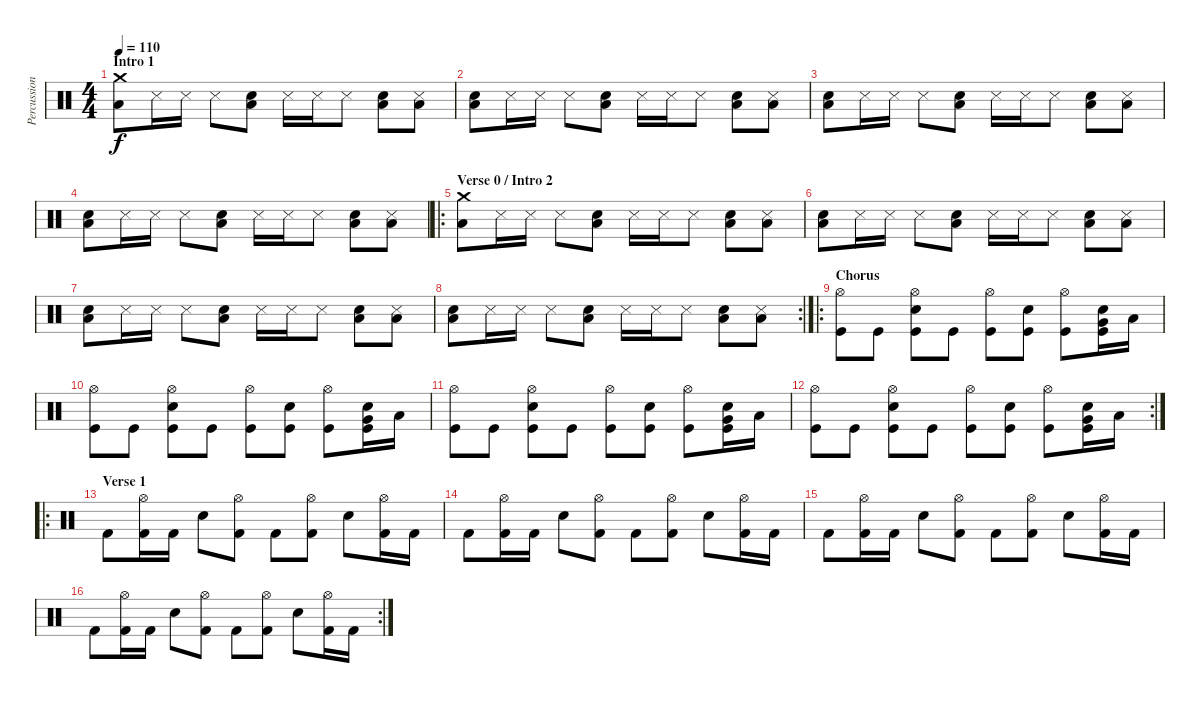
\track ("Percussion" "Percussion") {instrument percussion}
\staff {score}
\articulation defaults
\ts (4 4)
\section ("" "Intro 1")
\tempo 110
\clef neutral
\ks c
("Low Floor Tom (hit)" "Crash medium (hit)").8{dy f} "Snare (side stick) 3".16 "Snare (side stick) 3".16 "Snare (side stick) 3".8 ("Low Floor Tom (hit)" "Electric Snare (hit)").8 "Snare (side stick) 3".16 "Snare (side stick) 3".16 "Snare (side stick) 3".8 ("Low Floor Tom (hit)" "Electric Snare (hit)").8 ("Snare (side stick) 3" "Low Floor Tom (hit)").8 |
("Low Floor Tom (hit)" "Electric Snare (hit)").8 "Snare (side stick) 3".16 "Snare (side stick) 3".16 "Snare (side stick) 3".8 ("Low Floor Tom (hit)" "Electric Snare (hit)").8 "Snare (side stick) 3".16 "Snare (side stick) 3".16 "Snare (side stick) 3".8 ("Low Floor Tom (hit)" "Electric Snare (hit)").8 ("Snare (side stick) 3" "Low Floor Tom (hit)").8 |
("Low Floor Tom (hit)" "Electric Snare (hit)").8 "Snare (side stick) 3".16 "Snare (side stick) 3".16 "Snare (side stick) 3".8 ("Low Floor Tom (hit)" "Electric Snare (hit)").8 "Snare (side stick) 3".16 "Snare (side stick) 3".16 "Snare (side stick) 3".8 ("Low Floor Tom (hit)" "Electric Snare (hit)").8 ("Snare (side stick) 3" "Low Floor Tom (hit)").8 |
("Low Floor Tom (hit)" "Electric Snare (hit)").8 "Snare (side stick) 3".16 "Snare (side stick) 3".16 "Snare (side stick) 3".8 ("Low Floor Tom (hit)" "Electric Snare (hit)").8 "Snare (side stick) 3".16 "Snare (side stick) 3".16 "Snare (side stick) 3".8 ("Low Floor Tom (hit)" "Electric Snare (hit)").8 ("Snare (side stick) 3" "Low Floor Tom (hit)").8 |
\ro
\section ("" "Verse 0 / Intro 2")
("Low Floor Tom (hit)" "Crash medium (hit)").8 "Snare (side stick) 3".16 "Snare (side stick) 3".16 "Snare (side stick) 3".8 ("Low Floor Tom (hit)" "Electric Snare (hit)").8 "Snare (side stick) 3".16 "Snare (side stick) 3".16 "Snare (side stick) 3".8 ("Low Floor Tom (hit)" "Electric Snare (hit)").8 ("Snare (side stick) 3" "Low Floor Tom (hit)").8 |
("Low Floor Tom (hit)" "Electric Snare (hit)").8 "Snare (side stick) 3".16 "Snare (side stick) 3".16 "Snare (side stick) 3".8 ("Low Floor Tom (hit)" "Electric Snare (hit)").8 "Snare (side stick) 3".16 "Snare (side stick) 3".16 "Snare (side stick) 3".8 ("Low Floor Tom (hit)" "Electric Snare (hit)").8 ("Snare (side stick) 3" "Low Floor Tom (hit)").8 |
("Low Floor Tom (hit)" "Electric Snare (hit)").8 "Snare (side stick) 3".16 "Snare (side stick) 3".16 "Snare (side stick) 3".8 ("Low Floor Tom (hit)" "Electric Snare (hit)").8 "Snare (side stick) 3".16 "Snare (side stick) 3".16 "Snare (side stick) 3".8 ("Low Floor Tom (hit)" "Electric Snare (hit)").8 ("Snare (side stick) 3" "Low Floor Tom (hit)").8 |
\rc 2
("Low Floor Tom (hit)" "Electric Snare (hit)").8 "Snare (side stick) 3".16 "Snare (side stick) 3".16 "Snare (side stick) 3".8 ("Low Floor Tom (hit)" "Electric Snare (hit)").8 "Snare (side stick) 3".16 "Snare (side stick) 3".16 "Snare (side stick) 3".8 ("Low Floor Tom (hit)" "Electric Snare (hit)").8 ("Snare (side stick) 3" "Low Floor Tom (hit)").8 |
\ro
\section ("" "Chorus")
("Kick (hit)" "Hi-Hat (open)").8 "Kick (hit)".8 ("Kick (hit)" "Hi-Hat (open)" "Electric Snare (hit)").8 "Kick (hit)".8 ("Kick (hit)" "Hi-Hat (open)").8 ("Kick (hit)" "Electric Snare (hit)").8 ("Kick (hit)" "Hi-Hat (open)").8 ("Kick (hit)" "Very Low Tom (hit)" "Electric Snare (hit)").16 "Low Floor Tom (hit)".16 |
("Kick (hit)" "Hi-Hat (open)").8 "Kick (hit)".8 ("Kick (hit)" "Hi-Hat (open)" "Electric Snare (hit)").8 "Kick (hit)".8 ("Kick (hit)" "Hi-Hat (open)").8 ("Kick (hit)" "Electric Snare (hit)").8 ("Kick (hit)" "Hi-Hat (open)").8 ("Kick (hit)" "Very Low Tom (hit)" "Electric Snare (hit)").16 "Low Floor Tom (hit)".16 |
("Kick (hit)" "Hi-Hat (open)").8 "Kick (hit)".8 ("Kick (hit)" "Hi-Hat (open)" "Electric Snare (hit)").8 "Kick (hit)".8 ("Kick (hit)" "Hi-Hat (open)").8 ("Kick (hit)" "Electric Snare (hit)").8 ("Kick (hit)" "Hi-Hat (open)").8 ("Kick (hit)" "Very Low Tom (hit)" "Electric Snare (hit)").16 "Low Floor Tom (hit)".16 |
\rc 2
("Kick (hit)" "Hi-Hat (open)").8 "Kick (hit)".8 ("Kick (hit)" "Hi-Hat (open)" "Electric Snare (hit)").8 "Kick (hit)".8 ("Kick (hit)" "Hi-Hat (open)").8 ("Kick (hit)" "Electric Snare (hit)").8 ("Kick (hit)" "Hi-Hat (open)").8 ("Kick (hit)" "Very Low Tom (hit)" "Electric Snare (hit)").16 "Low Floor Tom (hit)".16 |
\ro
\section ("" "Verse 1")
"Kick (hit) 2".8 ("Hi-Hat (open)" "Kick (hit) 2").16 "Kick (hit) 2".16 "Electric Snare (hit)".8 ("Hi-Hat (open)" "Kick (hit) 2").8 "Kick (hit) 2".8 ("Hi-Hat (open)" "Kick (hit) 2").8 "Electric Snare (hit)".8 ("Hi-Hat (open)" "Kick (hit) 2").16 "Kick (hit) 2".16 |
"Kick (hit) 2".8 ("Hi-Hat (open)" "Kick (hit) 2").16 "Kick (hit) 2".16 "Electric Snare (hit)".8 ("Hi-Hat (open)" "Kick (hit) 2").8 "Kick (hit) 2".8 ("Hi-Hat (open)" "Kick (hit) 2").8 "Electric Snare (hit)".8 ("Hi-Hat (open)" "Kick (hit) 2").16 "Kick (hit) 2".16 |
"Kick (hit) 2".8 ("Hi-Hat (open)" "Kick (hit) 2").16 "Kick (hit) 2".16 "Electric Snare (hit)".8 ("Hi-Hat (open)" "Kick (hit) 2").8 "Kick (hit) 2".8 ("Hi-Hat (open)" "Kick (hit) 2").8 "Electric Snare (hit)".8 ("Hi-Hat (open)" "Kick (hit) 2").16 "Kick (hit) 2".16 |
\rc 2 "Kick (hit) 2".8
("Hi-Hat (open)" "Kick (hit) 2").16 "Kick (hit) 2".16 "Electric Snare (hit)".8 ("Hi-Hat (open)" "Kick (hit) 2").8 "Kick (hit) 2".8 ("Hi-Hat (open)" "Kick (hit) 2").8 "Electric Snare (hit)".8 ("Hi-Hat (open)" "Kick (hit) 2").16 "Kick (hit) 2".16
